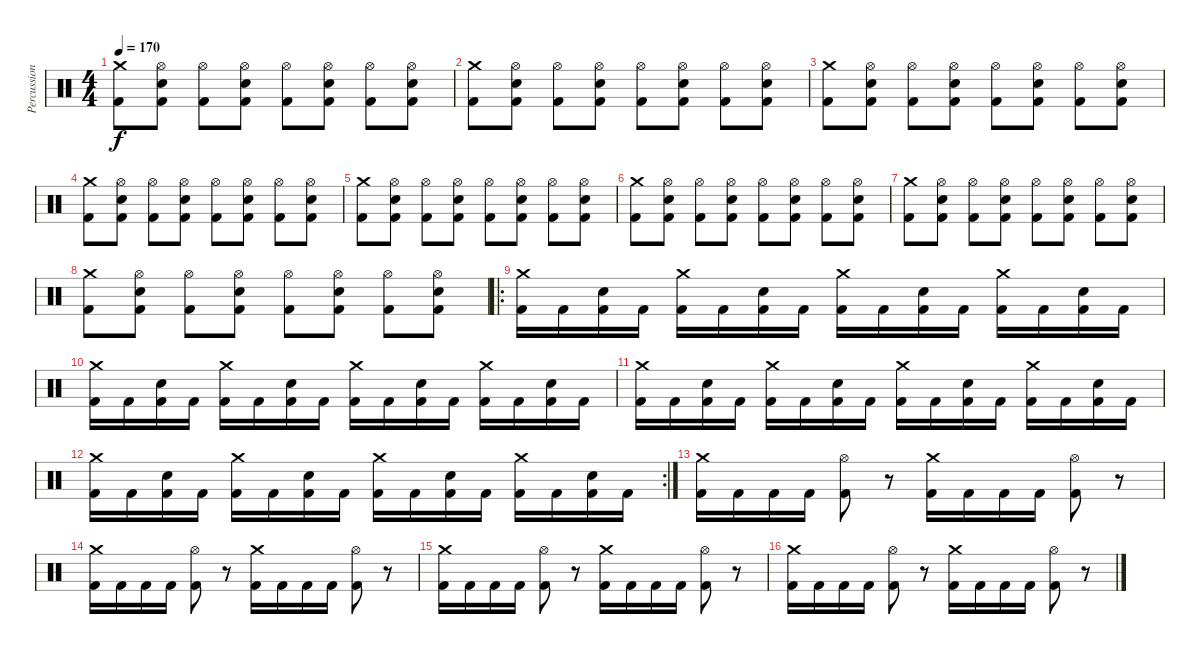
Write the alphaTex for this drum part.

\track ("Percussion" "Percussion") {instrument percussion}
\staff {score}
\articulation defaults
\ts (4 4)
\tempo 170
\clef neutral
\ks c
("Crash medium (hit)" "Kick (hit) 2").8{dy f} ("Hi-Hat (open)" "Snare (hit) 2" "Kick (hit) 2").8 ("Hi-Hat (open)" "Kick (hit) 2").8 ("Hi-Hat (open)" "Snare (hit) 2" "Kick (hit) 2").8 ("Hi-Hat (open)" "Kick (hit) 2").8 ("Hi-Hat (open)" "Snare (hit) 2" "Kick (hit) 2").8 ("Hi-Hat (open)" "Kick (hit) 2").8 ("Hi-Hat (open)" "Snare (hit) 2" "Kick (hit) 2").8 |
("Crash medium (hit)" "Kick (hit) 2").8 ("Hi-Hat (open)" "Snare (hit) 2" "Kick (hit) 2").8 ("Hi-Hat (open)" "Kick (hit) 2").8 ("Hi-Hat (open)" "Snare (hit) 2" "Kick (hit) 2").8 ("Hi-Hat (open)" "Kick (hit) 2").8 ("Hi-Hat (open)" "Snare (hit) 2" "Kick (hit) 2").8 ("Hi-Hat (open)" "Kick (hit) 2").8 ("Hi-Hat (open)" "Snare (hit) 2" "Kick (hit) 2").8 |
("Crash medium (hit)" "Kick (hit) 2").8 ("Hi-Hat (open)" "Snare (hit) 2" "Kick (hit) 2").8 ("Hi-Hat (open)" "Kick (hit) 2").8 ("Hi-Hat (open)" "Snare (hit) 2" "Kick (hit) 2").8 ("Hi-Hat (open)" "Kick (hit) 2").8 ("Hi-Hat (open)" "Snare (hit) 2" "Kick (hit) 2").8 ("Hi-Hat (open)" "Kick (hit) 2").8 ("Hi-Hat (open)" "Snare (hit) 2" "Kick (hit) 2").8 |
("Crash medium (hit)" "Kick (hit) 2").8 ("Hi-Hat (open)" "Snare (hit) 2" "Kick (hit) 2").8 ("Hi-Hat (open)" "Kick (hit) 2").8 ("Hi-Hat (open)" "Snare (hit) 2" "Kick (hit) 2").8 ("Hi-Hat (open)" "Kick (hit) 2").8 ("Hi-Hat (open)" "Snare (hit) 2" "Kick (hit) 2").8 ("Hi-Hat (open)" "Kick (hit) 2").8 ("Hi-Hat (open)" "Snare (hit) 2" "Kick (hit) 2").8 |
("Crash medium (hit)" "Kick (hit) 2").8 ("Hi-Hat (open)" "Snare (hit) 2" "Kick (hit) 2").8 ("Hi-Hat (open)" "Kick (hit) 2").8 ("Hi-Hat (open)" "Snare (hit) 2" "Kick (hit) 2").8 ("Hi-Hat (open)" "Kick (hit) 2").8 ("Hi-Hat (open)" "Snare (hit) 2" "Kick (hit) 2").8 ("Hi-Hat (open)" "Kick (hit) 2").8 ("Hi-Hat (open)" "Snare (hit) 2" "Kick (hit) 2").8 |
("Crash medium (hit)" "Kick (hit) 2").8 ("Hi-Hat (open)" "Snare (hit) 2" "Kick (hit) 2").8 ("Hi-Hat (open)" "Kick (hit) 2").8 ("Hi-Hat (open)" "Snare (hit) 2" "Kick (hit) 2").8 ("Hi-Hat (open)" "Kick (hit) 2").8 ("Hi-Hat (open)" "Snare (hit) 2" "Kick (hit) 2").8 ("Hi-Hat (open)" "Kick (hit) 2").8 ("Hi-Hat (open)" "Snare (hit) 2" "Kick (hit) 2").8 |
("Crash medium (hit)" "Kick (hit) 2").8 ("Hi-Hat (open)" "Snare (hit) 2" "Kick (hit) 2").8 ("Hi-Hat (open)" "Kick (hit) 2").8 ("Hi-Hat (open)" "Snare (hit) 2" "Kick (hit) 2").8 ("Hi-Hat (open)" "Kick (hit) 2").8 ("Hi-Hat (open)" "Snare (hit) 2" "Kick (hit) 2").8 ("Hi-Hat (open)" "Kick (hit) 2").8 ("Hi-Hat (open)" "Snare (hit) 2" "Kick (hit) 2").8 |
("Crash medium (hit)" "Kick (hit) 2").8 ("Hi-Hat (open)" "Snare (hit) 2" "Kick (hit) 2").8 ("Hi-Hat (open)" "Kick (hit) 2").8 ("Hi-Hat (open)" "Snare (hit) 2" "Kick (hit) 2").8 ("Hi-Hat (open)" "Kick (hit) 2").8 ("Hi-Hat (open)" "Snare (hit) 2" "Kick (hit) 2").8 ("Hi-Hat (open)" "Kick (hit) 2").8 ("Hi-Hat (open)" "Snare (hit) 2" "Kick (hit) 2").8 |
\ro
("Crash medium (hit)" "Kick (hit) 2").16 "Kick (hit) 2".16 ("Electric Snare (hit)" "Kick (hit) 2").16 "Kick (hit) 2".16 ("Crash medium (hit)" "Kick (hit) 2").16 "Kick (hit) 2".16 ("Electric Snare (hit)" "Kick (hit) 2").16 "Kick (hit) 2".16 ("Crash medium (hit)" "Kick (hit) 2").16 "Kick (hit) 2".16 ("Electric Snare (hit)" "Kick (hit) 2").16 "Kick (hit) 2".16 ("Crash medium (hit)" "Kick (hit) 2").16 "Kick (hit) 2".16 ("Electric Snare (hit)" "Kick (hit) 2").16 "Kick (hit) 2".16 |
("Crash medium (hit)" "Kick (hit) 2").16 "Kick (hit) 2".16 ("Electric Snare (hit)" "Kick (hit) 2").16 "Kick (hit) 2".16 ("Crash medium (hit)" "Kick (hit) 2").16 "Kick (hit) 2".16 ("Electric Snare (hit)" "Kick (hit) 2").16 "Kick (hit) 2".16 ("Crash medium (hit)" "Kick (hit) 2").16 "Kick (hit) 2".16 ("Electric Snare (hit)" "Kick (hit) 2").16 "Kick (hit) 2".16 ("Crash medium (hit)" "Kick (hit) 2").16 "Kick (hit) 2".16 ("Electric Snare (hit)" "Kick (hit) 2").16 "Kick (hit) 2".16 |
("Crash medium (hit)" "Kick (hit) 2").16 "Kick (hit) 2".16 ("Electric Snare (hit)" "Kick (hit) 2").16 "Kick (hit) 2".16 ("Crash medium (hit)" "Kick (hit) 2").16 "Kick (hit) 2".16 ("Electric Snare (hit)" "Kick (hit) 2").16 "Kick (hit) 2".16 ("Crash medium (hit)" "Kick (hit) 2").16 "Kick (hit) 2".16 ("Electric Snare (hit)" "Kick (hit) 2").16 "Kick (hit) 2".16 ("Crash medium (hit)" "Kick (hit) 2").16 "Kick (hit) 2".16 ("Electric Snare (hit)" "Kick (hit) 2").16 "Kick (hit) 2".16 |
\rc 2
("Crash medium (hit)" "Kick (hit) 2").16 "Kick (hit) 2".16 ("Electric Snare (hit)" "Kick (hit) 2").16 "Kick (hit) 2".16 ("Crash medium (hit)" "Kick (hit) 2").16 "Kick (hit) 2".16 ("Electric Snare (hit)" "Kick (hit) 2").16 "Kick (hit) 2".16 ("Crash medium (hit)" "Kick (hit) 2").16 "Kick (hit) 2".16 ("Electric Snare (hit)" "Kick (hit) 2").16 "Kick (hit) 2".16 ("Crash medium (hit)" "Kick (hit) 2").16 "Kick (hit) 2".16 ("Electric Snare (hit)" "Kick (hit) 2").16 "Kick (hit) 2".16 |
("Crash medium (hit)" "Kick (hit) 2").16 "Kick (hit) 2".16 "Kick (hit) 2".16 "Kick (hit) 2".16 ("Hi-Hat (open)" "Kick (hit) 2").8 r.8 ("Crash medium (hit)" "Kick (hit) 2").16 "Kick (hit) 2".16 "Kick (hit) 2".16 "Kick (hit) 2".16 ("Hi-Hat (open)" "Kick (hit) 2").8 r.8 |
("Crash medium (hit)" "Kick (hit) 2").16 "Kick (hit) 2".16 "Kick (hit) 2".16 "Kick (hit) 2".16 ("Hi-Hat (open)" "Kick (hit) 2").8 r.8 ("Crash medium (hit)" "Kick (hit) 2").16 "Kick (hit) 2".16 "Kick (hit) 2".16 "Kick (hit) 2".16 ("Hi-Hat (open)" "Kick (hit) 2").8 r.8 |
("Crash medium (hit)" "Kick (hit) 2").16 "Kick (hit) 2".16 "Kick (hit) 2".16 "Kick (hit) 2".16 ("Hi-Hat (open)" "Kick (hit) 2").8 r.8 ("Crash medium (hit)" "Kick (hit) 2").16 "Kick (hit) 2".16 "Kick (hit) 2".16 "Kick (hit) 2".16 ("Hi-Hat (open)" "Kick (hit) 2").8 r.8 |
("Crash medium (hit)" "Kick (hit) 2").16 "Kick (hit) 2".16 "Kick (hit) 2".16 "Kick (hit) 2".16 ("Hi-Hat (open)" "Kick (hit) 2").8 r.8 ("Crash medium (hit)" "Kick (hit) 2").16 "Kick (hit) 2".16 "Kick (hit) 2".16 "Kick (hit) 2".16 ("Hi-Hat (open)" "Kick (hit) 2").8 r.8
